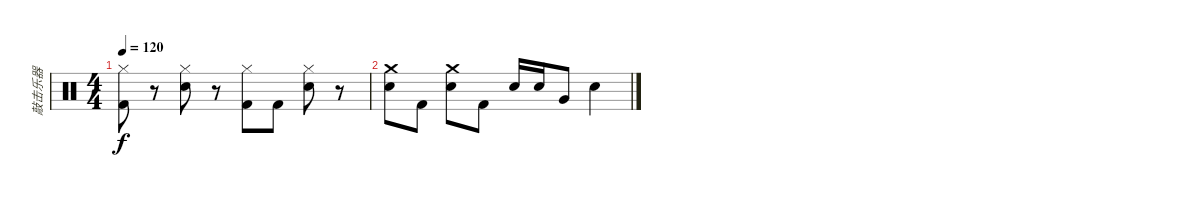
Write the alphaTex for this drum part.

\track ("敲击乐器" "敲击乐器") {instrument percussion}
\staff {score}
\articulation defaults
\ts (4 4)
\tempo 120
\clef neutral
\ks c
("Hi-Hat (closed)" "Kick (hit) 2").8{dy f} r.8 ("Hi-Hat (closed)" "Snare (hit) 2").8 r.8 ("Hi-Hat (closed)" "Kick (hit) 2").8 "Kick (hit) 2".8 ("Hi-Hat (closed)" "Snare (hit) 2").8 r.8 |
("Crash medium (hit)" "Snare (hit) 2").8 "Kick (hit) 2".8 ("Crash medium (hit)" "Snare (hit) 2").8 "Kick (hit) 2".8 "Snare (hit) 2".16 "Snare (hit) 2".16 "Very Low Tom (hit)".8 "Snare (hit) 2".4
